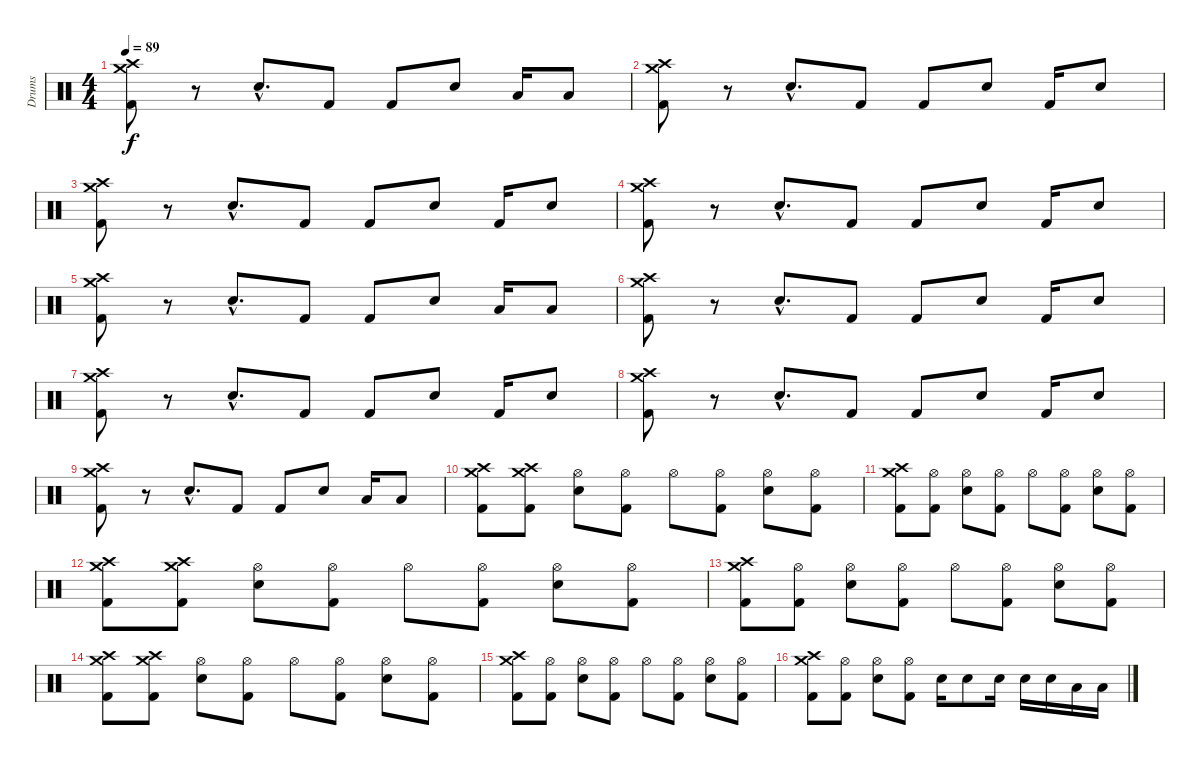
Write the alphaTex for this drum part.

\track ("Drums" "Drums") {instrument percussion}
\staff {score}
\articulation defaults
\ts (4 4)
\tempo 89
\clef neutral
\ks c
("Crash high (hit)" "Crash medium (hit)" "Kick (hit) 2").8{dy f} r.8 "Snare (hit) 2"{hac}.8{d} "Kick (hit) 2".8 "Kick (hit) 2".8 "Snare (hit) 2".8 "Low Tom (hit)".16 "Low Tom (hit)".8 |
("Crash high (hit)" "Crash medium (hit)" "Kick (hit) 2").8 r.8 "Snare (hit) 2"{hac}.8{d} "Kick (hit) 2".8 "Kick (hit) 2".8 "Snare (hit) 2".8 "Kick (hit) 2".16 "Snare (hit) 2".8 |
("Crash high (hit)" "Crash medium (hit)" "Kick (hit) 2").8 r.8 "Snare (hit) 2"{hac}.8{d} "Kick (hit) 2".8 "Kick (hit) 2".8 "Snare (hit) 2".8 "Kick (hit) 2".16 "Snare (hit) 2".8 |
("Crash high (hit)" "Crash medium (hit)" "Kick (hit) 2").8 r.8 "Snare (hit) 2"{hac}.8{d} "Kick (hit) 2".8 "Kick (hit) 2".8 "Snare (hit) 2".8 "Kick (hit) 2".16 "Snare (hit) 2".8 |
("Crash high (hit)" "Crash medium (hit)" "Kick (hit) 2").8 r.8 "Snare (hit) 2"{hac}.8{d} "Kick (hit) 2".8 "Kick (hit) 2".8 "Snare (hit) 2".8 "Low Tom (hit)".16 "Low Tom (hit)".8 |
("Crash high (hit)" "Crash medium (hit)" "Kick (hit) 2").8 r.8 "Snare (hit) 2"{hac}.8{d} "Kick (hit) 2".8 "Kick (hit) 2".8 "Snare (hit) 2".8 "Kick (hit) 2".16 "Snare (hit) 2".8 |
("Crash high (hit)" "Crash medium (hit)" "Kick (hit) 2").8 r.8 "Snare (hit) 2"{hac}.8{d} "Kick (hit) 2".8 "Kick (hit) 2".8 "Snare (hit) 2".8 "Kick (hit) 2".16 "Snare (hit) 2".8 |
("Crash high (hit)" "Crash medium (hit)" "Kick (hit) 2").8 r.8 "Snare (hit) 2"{hac}.8{d} "Kick (hit) 2".8 "Kick (hit) 2".8 "Snare (hit) 2".8 "Kick (hit) 2".16 "Snare (hit) 2".8 |
("Crash high (hit)" "Crash medium (hit)" "Kick (hit) 2").8 r.8 "Snare (hit) 2"{hac}.8{d} "Kick (hit) 2".8 "Kick (hit) 2".8 "Snare (hit) 2".8 "Low Tom (hit)".16 "Low Tom (hit)".8 |
("Crash high (hit)" "Crash medium (hit)" "Kick (hit) 2").8 ("Crash high (hit)" "Crash medium (hit)" "Kick (hit) 2").8 ("Hi-Hat (open)" "Snare (hit) 2").8 ("Hi-Hat (open)" "Kick (hit) 2").8 "Hi-Hat (open)".8 ("Hi-Hat (open)" "Kick (hit) 2").8 ("Hi-Hat (open)" "Snare (hit) 2").8 ("Hi-Hat (open)" "Kick (hit) 2").8 |
("Crash high (hit)" "Crash medium (hit)" "Kick (hit) 2").8 ("Hi-Hat (open)" "Kick (hit) 2").8 ("Hi-Hat (open)" "Snare (hit) 2").8 ("Hi-Hat (open)" "Kick (hit) 2").8 "Hi-Hat (open)".8 ("Hi-Hat (open)" "Kick (hit) 2").8 ("Hi-Hat (open)" "Snare (hit) 2").8 ("Hi-Hat (open)" "Kick (hit) 2").8 |
("Crash high (hit)" "Crash medium (hit)" "Kick (hit) 2").8 ("Crash high (hit)" "Crash medium (hit)" "Kick (hit) 2").8 ("Hi-Hat (open)" "Snare (hit) 2").8 ("Hi-Hat (open)" "Kick (hit) 2").8 "Hi-Hat (open)".8 ("Hi-Hat (open)" "Kick (hit) 2").8 ("Hi-Hat (open)" "Snare (hit) 2").8 ("Hi-Hat (open)" "Kick (hit) 2").8 |
("Crash high (hit)" "Crash medium (hit)" "Kick (hit) 2").8 ("Hi-Hat (open)" "Kick (hit) 2").8 ("Hi-Hat (open)" "Snare (hit) 2").8 ("Hi-Hat (open)" "Kick (hit) 2").8 "Hi-Hat (open)".8 ("Hi-Hat (open)" "Kick (hit) 2").8 ("Hi-Hat (open)" "Snare (hit) 2").8 ("Hi-Hat (open)" "Kick (hit) 2").8 |
("Crash high (hit)" "Crash medium (hit)" "Kick (hit) 2").8 ("Crash high (hit)" "Crash medium (hit)" "Kick (hit) 2").8 ("Hi-Hat (open)" "Snare (hit) 2").8 ("Hi-Hat (open)" "Kick (hit) 2").8 "Hi-Hat (open)".8 ("Hi-Hat (open)" "Kick (hit) 2").8 ("Hi-Hat (open)" "Snare (hit) 2").8 ("Hi-Hat (open)" "Kick (hit) 2").8 |
("Crash high (hit)" "Crash medium (hit)" "Kick (hit) 2").8 ("Hi-Hat (open)" "Kick (hit) 2").8 ("Hi-Hat (open)" "Snare (hit) 2").8 ("Hi-Hat (open)" "Kick (hit) 2").8 "Hi-Hat (open)".8 ("Hi-Hat (open)" "Kick (hit) 2").8 ("Hi-Hat (open)" "Snare (hit) 2").8 ("Hi-Hat (open)" "Kick (hit) 2").8 |
("Crash medium (hit)" "Crash high (hit)" "Kick (hit) 2").8 ("Hi-Hat (open)" "Kick (hit) 2").8 ("Hi-Hat (open)" "Snare (hit) 2").8 ("Hi-Hat (open)" "Kick (hit) 2").8 "Snare (hit) 2".16 "Snare (hit) 2".8 "Snare (hit) 2".16 "Snare (hit) 2".16 "Snare (hit) 2".16 "Low Tom (hit)".16 "Low Tom (hit)".16
